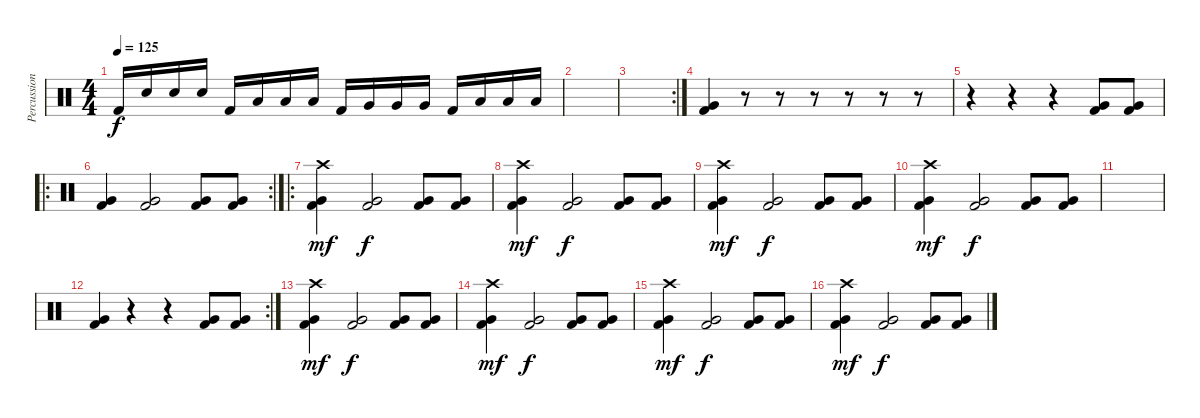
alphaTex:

\track ("Percussion" "Percussion") {instrument percussion}
\staff {score}
\articulation defaults
\ts (4 4)
\tempo 125
\clef neutral
\ks c "Kick (hit) 2".16{dy f} "Snare (hit) 2".16 "Snare (hit) 2".16 "Snare (hit) 2".16 "Kick (hit) 2".16 "Low Floor Tom (hit)".16 "Low Floor Tom (hit)".16 "Low Floor Tom (hit)".16 "Kick (hit) 2".16 "Very Low Tom (hit)".16 "Very Low Tom (hit)".16 "Very Low Tom (hit)".16 "Kick (hit) 2".16 "Low Tom (hit)".16 "Low Tom (hit)".16 "Low Tom (hit)".16
|
|
\rc 2
|
("Very Low Tom (hit)" "Kick (hit) 2").4 r.8 r.8 r.8 r.8 r.8 r.8 |
r.4 r.4 r.4 ("Very Low Tom (hit)" "Kick (hit) 2").8 ("Very Low Tom (hit)" "Kick (hit) 2").8 |
\ro
\rc 2
("Very Low Tom (hit)" "Kick (hit) 2").4 ("Very Low Tom (hit)" "Kick (hit) 2").2 ("Very Low Tom (hit)" "Kick (hit) 2").8 ("Very Low Tom (hit)" "Kick (hit) 2").8 |
\ro
("Crash high (hit)" "Very Low Tom (hit)" "Kick (hit) 2").4{dy mf} ("Very Low Tom (hit)" "Kick (hit) 2").2{dy f} ("Very Low Tom (hit)" "Kick (hit) 2").8 ("Very Low Tom (hit)" "Kick (hit) 2").8 |
("Crash high (hit)" "Very Low Tom (hit)" "Kick (hit) 2").4{dy mf} ("Very Low Tom (hit)" "Kick (hit) 2").2{dy f} ("Very Low Tom (hit)" "Kick (hit) 2").8 ("Very Low Tom (hit)" "Kick (hit) 2").8 |
("Crash high (hit)" "Very Low Tom (hit)" "Kick (hit) 2").4{dy mf} ("Very Low Tom (hit)" "Kick (hit) 2").2{dy f} ("Very Low Tom (hit)" "Kick (hit) 2").8 ("Very Low Tom (hit)" "Kick (hit) 2").8 |
("Crash high (hit)" "Very Low Tom (hit)" "Kick (hit) 2").4{dy mf} ("Very Low Tom (hit)" "Kick (hit) 2").2{dy f} ("Very Low Tom (hit)" "Kick (hit) 2").8 ("Very Low Tom (hit)" "Kick (hit) 2").8 |
|
\rc 2
("Very Low Tom (hit)" "Kick (hit) 2").4 r.4 r.4 ("Very Low Tom (hit)" "Kick (hit) 2").8 ("Very Low Tom (hit)" "Kick (hit) 2").8 |
("Crash high (hit)" "Very Low Tom (hit)" "Kick (hit) 2").4{dy mf} ("Very Low Tom (hit)" "Kick (hit) 2").2{dy f} ("Very Low Tom (hit)" "Kick (hit) 2").8 ("Very Low Tom (hit)" "Kick (hit) 2").8 |
("Crash high (hit)" "Very Low Tom (hit)" "Kick (hit) 2").4{dy mf} ("Very Low Tom (hit)" "Kick (hit) 2").2{dy f} ("Very Low Tom (hit)" "Kick (hit) 2").8 ("Very Low Tom (hit)" "Kick (hit) 2").8 |
("Crash high (hit)" "Very Low Tom (hit)" "Kick (hit) 2").4{dy mf} ("Very Low Tom (hit)" "Kick (hit) 2").2{dy f} ("Very Low Tom (hit)" "Kick (hit) 2").8 ("Very Low Tom (hit)" "Kick (hit) 2").8 |
("Crash high (hit)" "Very Low Tom (hit)" "Kick (hit) 2").4{dy mf} ("Very Low Tom (hit)" "Kick (hit) 2").2{dy f} ("Very Low Tom (hit)" "Kick (hit) 2").8 ("Very Low Tom (hit)" "Kick (hit) 2").8
